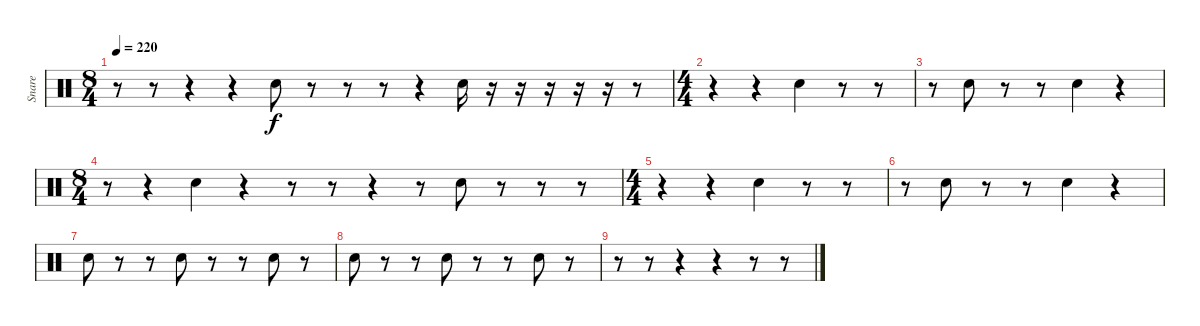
\track ("Snare" "Snare") {instrument percussion}
\staff {score}
\articulation defaults
\ts (8 4)
\tempo 220
\clef neutral
\ks c
r.8{dy f} r.8 r.4 r.4 "Electric Snare (hit)".8 r.8 r.8 r.8 r.4 "Electric Snare (hit)".16 r.16 r.16 r.16 r.16 r.16 r.8 |
\ts (4 4)
r.4 r.4 "Electric Snare (hit)".4 r.8 r.8 |
r.8 "Electric Snare (hit)".8 r.8 r.8 "Electric Snare (hit)".4 r.4 |
\ts (8 4)
r.8 r.4 "Electric Snare (hit)".4 r.4 r.8 r.8 r.4 r.8 "Electric Snare (hit)".8 r.8 r.8 r.8 |
\ts (4 4)
r.4 r.4 "Electric Snare (hit)".4 r.8 r.8 |
r.8 "Electric Snare (hit)".8 r.8 r.8 "Electric Snare (hit)".4 r.4 |
"Electric Snare (hit)".8 r.8 r.8 "Electric Snare (hit)".8 r.8 r.8 "Electric Snare (hit)".8 r.8 |
"Electric Snare (hit)".8 r.8 r.8 "Electric Snare (hit)".8 r.8 r.8 "Electric Snare (hit)".8 r.8 |
r.8 r.8 r.4 r.4 r.8 r.8
